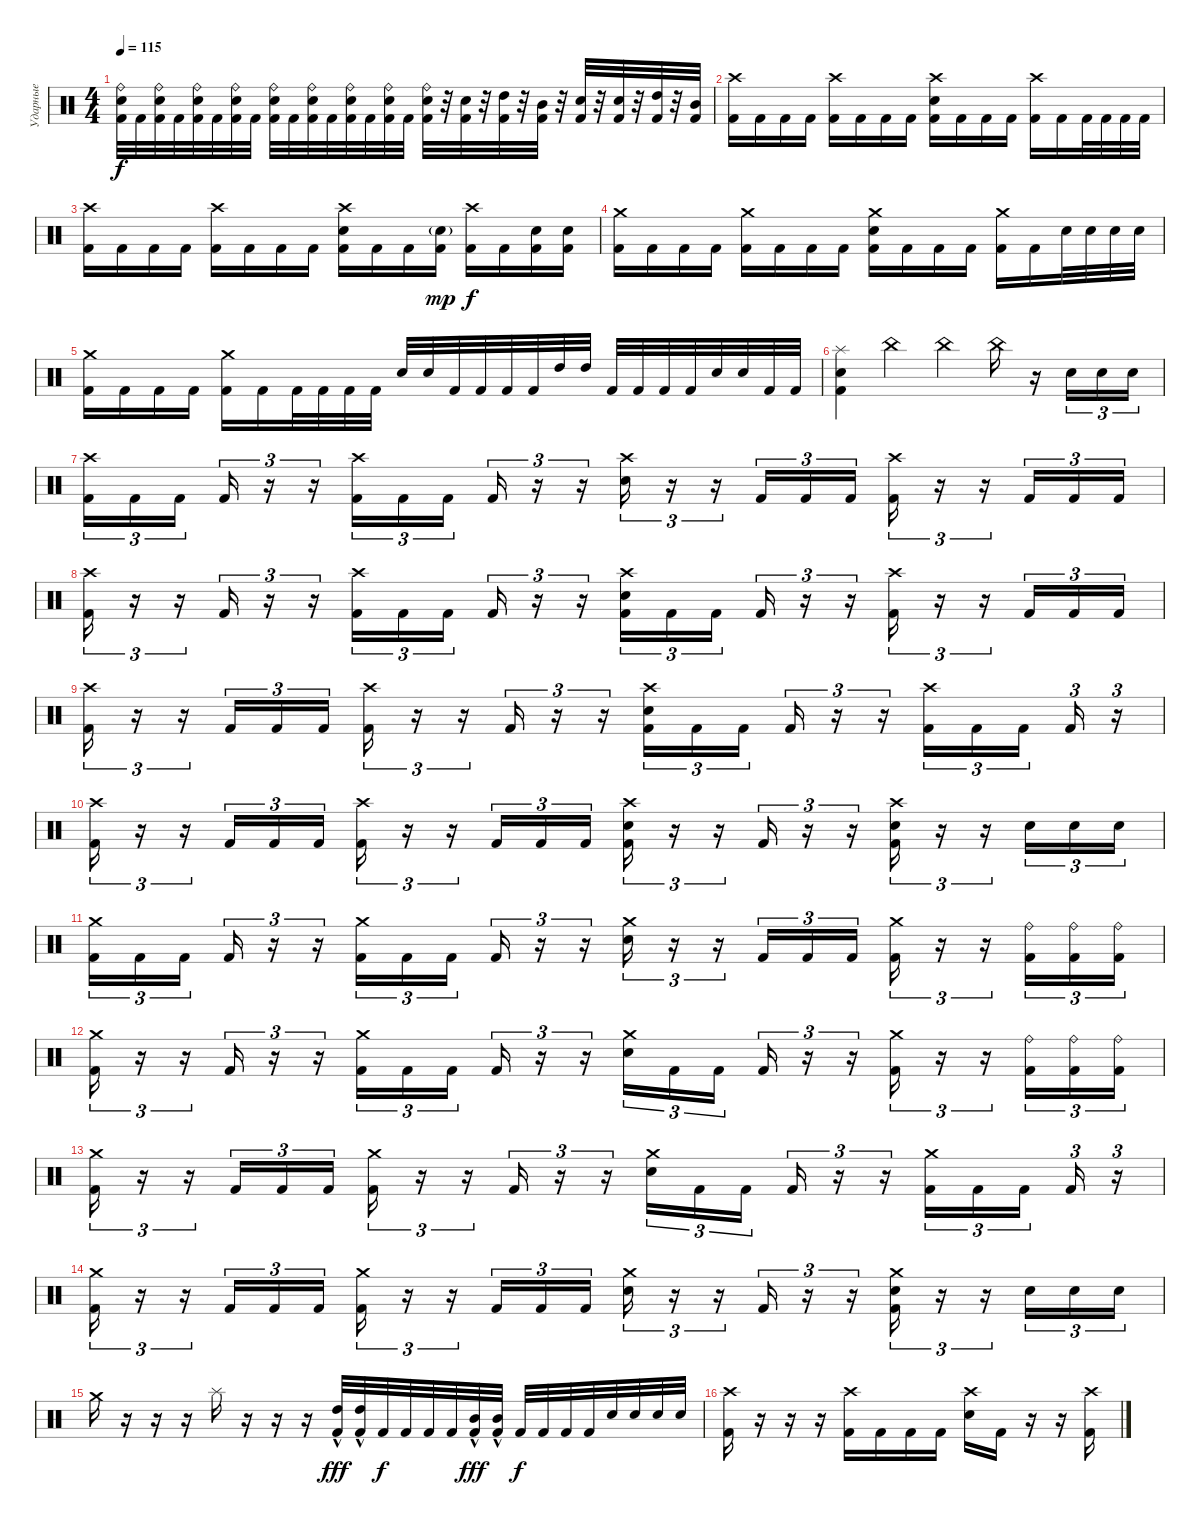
\track ("Ударные" "Ударные") {instrument percussion}
\staff {score}
\articulation defaults
\ts (4 4)
\tempo 115
\clef neutral
\ks c
("Ride (bell)" "Electric Snare (hit)" "Kick (hit) 2").32{dy f} "Kick (hit) 2".32 ("Ride (bell)" "Electric Snare (hit)" "Kick (hit) 2").32 "Kick (hit) 2".32 ("Ride (bell)" "Electric Snare (hit)" "Kick (hit) 2").32 "Kick (hit) 2".32 ("Ride (bell)" "Electric Snare (hit)" "Kick (hit) 2").32 "Kick (hit) 2".32 ("Ride (bell)" "Electric Snare (hit)" "Kick (hit) 2").32 "Kick (hit) 2".32 ("Ride (bell)" "Electric Snare (hit)" "Kick (hit) 2").32 "Kick (hit) 2".32 ("Ride (bell)" "Electric Snare (hit)" "Kick (hit) 2").32 "Kick (hit) 2".32 ("Ride (bell)" "Electric Snare (hit)" "Kick (hit) 2").32 "Kick (hit) 2".32 ("Ride (bell)" "Electric Snare (hit)" "Kick (hit) 2").32 r.32 ("Electric Snare (hit)" "Kick (hit) 2").32 r.32 ("High Tom (hit)" "Kick (hit) 2").32 r.32 ("Mid Tom (hit)" "Kick (hit) 2").32 r.32 ("Electric Snare (hit)" "Kick (hit) 2").32 r.32 ("Electric Snare (hit)" "Kick (hit) 2").32 r.32 ("High Tom (hit)" "Kick (hit) 2").32 r.32 ("Mid Tom (hit)" "Kick (hit) 2").32 |
("Crash high (hit)" "Kick (hit) 2").16 "Kick (hit) 2".16 "Kick (hit) 2".16 "Kick (hit) 2".16 ("Crash high (hit)" "Kick (hit) 2").16 "Kick (hit) 2".16 "Kick (hit) 2".16 "Kick (hit) 2".16 ("Crash high (hit)" "Electric Snare (hit)" "Kick (hit) 2").16 "Kick (hit) 2".16 "Kick (hit) 2".16 "Kick (hit) 2".16 ("Crash high (hit)" "Kick (hit) 2").16 "Kick (hit) 2".16 "Kick (hit) 2".32 "Kick (hit) 2".32 "Kick (hit) 2".32 "Kick (hit) 2".32 |
("Crash high (hit)" "Kick (hit) 2").16 "Kick (hit) 2".16 "Kick (hit) 2".16 "Kick (hit) 2".16 ("Crash high (hit)" "Kick (hit) 2").16 "Kick (hit) 2".16 "Kick (hit) 2".16 "Kick (hit) 2".16 ("Crash high (hit)" "Electric Snare (hit)" "Kick (hit) 2").16 "Kick (hit) 2".16 "Kick (hit) 2".16 ("Electric Snare (hit)"{g} "Kick (hit) 2").16{dy mp} ("Crash high (hit)" "Kick (hit) 2").16{dy f} "Kick (hit) 2".16 ("Electric Snare (hit)" "Kick (hit) 2").16 ("Electric Snare (hit)" "Kick (hit) 2").16 |
("Crash medium (hit)" "Kick (hit) 2").16 "Kick (hit) 2".16 "Kick (hit) 2".16 "Kick (hit) 2".16 ("Crash medium (hit)" "Kick (hit) 2").16 "Kick (hit) 2".16 "Kick (hit) 2".16 "Kick (hit) 2".16 ("Crash medium (hit)" "Electric Snare (hit)" "Kick (hit) 2").16 "Kick (hit) 2".16 "Kick (hit) 2".16 "Kick (hit) 2".16 ("Crash medium (hit)" "Kick (hit) 2").16 "Kick (hit) 2".16 "Electric Snare (hit)".32 "Electric Snare (hit)".32 "Electric Snare (hit)".32 "Electric Snare (hit)".32 |
("Crash medium (hit)" "Kick (hit) 2").16 "Kick (hit) 2".16 "Kick (hit) 2".16 "Kick (hit) 2".16 ("Crash medium (hit)" "Kick (hit) 2").16 "Kick (hit) 2".16 "Kick (hit) 2".32 "Kick (hit) 2".32 "Kick (hit) 2".32 "Kick (hit) 2".32 "Electric Snare (hit)".32 "Electric Snare (hit)".32 "Kick (hit) 2".32 "Kick (hit) 2".32 "Kick (hit) 2".32 "Kick (hit) 2".32 "High Tom (hit)".32 "High Tom (hit)".32 "Kick (hit) 2".32 "Kick (hit) 2".32 "Kick (hit) 2".32 "Kick (hit) 2".32 "Electric Snare (hit)".32 "Electric Snare (hit)".32 "Kick (hit) 2".32 "Kick (hit) 2".32 |
("Splash (hit)" "Kick (hit) 2" "Electric Snare (hit)").4 "China (hit)".4 "China (hit)".4 "China (hit)".16 r.16 "Electric Snare (hit)".16{tu (3 2)} "Electric Snare (hit)".16{tu (3 2)} "Electric Snare (hit)".16{tu (3 2)} |
("Crash high (hit)" "Kick (hit) 2").16{tu (3 2)} "Kick (hit) 2".16{tu (3 2)} "Kick (hit) 2".16{tu (3 2) beam splitsecondary} "Kick (hit) 2".16{tu (3 2)} r.16{tu (3 2)} r.16{tu (3 2)} ("Crash high (hit)" "Kick (hit) 2").16{tu (3 2)} "Kick (hit) 2".16{tu (3 2)} "Kick (hit) 2".16{tu (3 2) beam splitsecondary} "Kick (hit) 2".16{tu (3 2)} r.16{tu (3 2)} r.16{tu (3 2)} ("Crash high (hit)" "Electric Snare (hit)").16{tu (3 2)} r.16{tu (3 2)} r.16{tu (3 2)} "Kick (hit) 2".16{tu (3 2)} "Kick (hit) 2".16{tu (3 2)} "Kick (hit) 2".16{tu (3 2)} ("Crash high (hit)" "Kick (hit) 2").16{tu (3 2)} r.16{tu (3 2)} r.16{tu (3 2)} "Kick (hit) 2".16{tu (3 2)} "Kick (hit) 2".16{tu (3 2)} "Kick (hit) 2".16{tu (3 2)} |
("Crash high (hit)" "Kick (hit) 2").16{tu (3 2)} r.16{tu (3 2)} r.16{tu (3 2)} "Kick (hit) 2".16{tu (3 2)} r.16{tu (3 2)} r.16{tu (3 2)} ("Crash high (hit)" "Kick (hit) 2").16{tu (3 2)} "Kick (hit) 2".16{tu (3 2)} "Kick (hit) 2".16{tu (3 2) beam splitsecondary} "Kick (hit) 2".16{tu (3 2)} r.16{tu (3 2)} r.16{tu (3 2)} ("Crash high (hit)" "Electric Snare (hit)" "Kick (hit) 2").16{tu (3 2)} "Kick (hit) 2".16{tu (3 2)} "Kick (hit) 2".16{tu (3 2) beam splitsecondary} "Kick (hit) 2".16{tu (3 2)} r.16{tu (3 2)} r.16{tu (3 2)} ("Crash high (hit)" "Kick (hit) 2").16{tu (3 2)} r.16{tu (3 2)} r.16{tu (3 2)} "Kick (hit) 2".16{tu (3 2)} "Kick (hit) 2".16{tu (3 2)} "Kick (hit) 2".16{tu (3 2)} |
("Crash high (hit)" "Kick (hit) 2").16{tu (3 2)} r.16{tu (3 2)} r.16{tu (3 2)} "Kick (hit) 2".16{tu (3 2)} "Kick (hit) 2".16{tu (3 2)} "Kick (hit) 2".16{tu (3 2)} ("Crash high (hit)" "Kick (hit) 2").16{tu (3 2)} r.16{tu (3 2)} r.16{tu (3 2)} "Kick (hit) 2".16{tu (3 2)} r.16{tu (3 2)} r.16{tu (3 2)} ("Crash high (hit)" "Electric Snare (hit)" "Kick (hit) 2").16{tu (3 2)} "Kick (hit) 2".16{tu (3 2)} "Kick (hit) 2".16{tu (3 2) beam splitsecondary} "Kick (hit) 2".16{tu (3 2)} r.16{tu (3 2)} r.16{tu (3 2)} ("Crash high (hit)" "Kick (hit) 2").16{tu (3 2)} "Kick (hit) 2".16{tu (3 2)} "Kick (hit) 2".16{tu (3 2) beam splitsecondary} "Kick (hit) 2".16{tu (3 2)} r.16{tu (3 2)} |
("Crash high (hit)" "Kick (hit) 2").16{tu (3 2)} r.16{tu (3 2)} r.16{tu (3 2)} "Kick (hit) 2".16{tu (3 2)} "Kick (hit) 2".16{tu (3 2)} "Kick (hit) 2".16{tu (3 2)} ("Crash high (hit)" "Kick (hit) 2").16{tu (3 2)} r.16{tu (3 2)} r.16{tu (3 2)} "Kick (hit) 2".16{tu (3 2)} "Kick (hit) 2".16{tu (3 2)} "Kick (hit) 2".16{tu (3 2)} ("Crash high (hit)" "Electric Snare (hit)" "Kick (hit) 2").16{tu (3 2)} r.16{tu (3 2)} r.16{tu (3 2)} "Kick (hit) 2".16{tu (3 2)} r.16{tu (3 2)} r.16{tu (3 2)} ("Crash high (hit)" "Electric Snare (hit)" "Kick (hit) 2").16{tu (3 2)} r.16{tu (3 2)} r.16{tu (3 2)} "Electric Snare (hit)".16{tu (3 2)} "Electric Snare (hit)".16{tu (3 2)} "Electric Snare (hit)".16{tu (3 2)} |
("Crash medium (hit)" "Kick (hit) 2").16{tu (3 2)} "Kick (hit) 2".16{tu (3 2)} "Kick (hit) 2".16{tu (3 2) beam splitsecondary} "Kick (hit) 2".16{tu (3 2)} r.16{tu (3 2)} r.16{tu (3 2)} ("Crash medium (hit)" "Kick (hit) 2").16{tu (3 2)} "Kick (hit) 2".16{tu (3 2)} "Kick (hit) 2".16{tu (3 2) beam splitsecondary} "Kick (hit) 2".16{tu (3 2)} r.16{tu (3 2)} r.16{tu (3 2)} ("Crash medium (hit)" "Electric Snare (hit)").16{tu (3 2)} r.16{tu (3 2)} r.16{tu (3 2)} "Kick (hit) 2".16{tu (3 2)} "Kick (hit) 2".16{tu (3 2)} "Kick (hit) 2".16{tu (3 2)} ("Crash medium (hit)" "Kick (hit) 2").16{tu (3 2)} r.16{tu (3 2)} r.16{tu (3 2)} ("Ride (bell)" "Kick (hit) 2").16{tu (3 2)} ("Ride (bell)" "Kick (hit) 2").16{tu (3 2)} ("Ride (bell)" "Kick (hit) 2").16{tu (3 2)} |
("Crash medium (hit)" "Kick (hit) 2").16{tu (3 2)} r.16{tu (3 2)} r.16{tu (3 2)} "Kick (hit) 2".16{tu (3 2)} r.16{tu (3 2)} r.16{tu (3 2)} ("Crash medium (hit)" "Kick (hit) 2").16{tu (3 2)} "Kick (hit) 2".16{tu (3 2)} "Kick (hit) 2".16{tu (3 2) beam splitsecondary} "Kick (hit) 2".16{tu (3 2)} r.16{tu (3 2)} r.16{tu (3 2)} ("Crash medium (hit)" "Electric Snare (hit)").16{tu (3 2)} "Kick (hit) 2".16{tu (3 2)} "Kick (hit) 2".16{tu (3 2) beam splitsecondary} "Kick (hit) 2".16{tu (3 2)} r.16{tu (3 2)} r.16{tu (3 2)} ("Crash medium (hit)" "Kick (hit) 2").16{tu (3 2)} r.16{tu (3 2)} r.16{tu (3 2)} ("Ride (bell)" "Kick (hit) 2").16{tu (3 2)} ("Ride (bell)" "Kick (hit) 2").16{tu (3 2)} ("Ride (bell)" "Kick (hit) 2").16{tu (3 2)} |
("Crash medium (hit)" "Kick (hit) 2").16{tu (3 2)} r.16{tu (3 2)} r.16{tu (3 2)} "Kick (hit) 2".16{tu (3 2)} "Kick (hit) 2".16{tu (3 2)} "Kick (hit) 2".16{tu (3 2)} ("Crash medium (hit)" "Kick (hit) 2").16{tu (3 2)} r.16{tu (3 2)} r.16{tu (3 2)} "Kick (hit) 2".16{tu (3 2)} r.16{tu (3 2)} r.16{tu (3 2)} ("Crash medium (hit)" "Electric Snare (hit)").16{tu (3 2)} "Kick (hit) 2".16{tu (3 2)} "Kick (hit) 2".16{tu (3 2) beam splitsecondary} "Kick (hit) 2".16{tu (3 2)} r.16{tu (3 2)} r.16{tu (3 2)} ("Crash medium (hit)" "Kick (hit) 2").16{tu (3 2)} "Kick (hit) 2".16{tu (3 2)} "Kick (hit) 2".16{tu (3 2) beam splitsecondary} "Kick (hit) 2".16{tu (3 2)} r.16{tu (3 2)} |
("Crash medium (hit)" "Kick (hit) 2").16{tu (3 2)} r.16{tu (3 2)} r.16{tu (3 2)} "Kick (hit) 2".16{tu (3 2)} "Kick (hit) 2".16{tu (3 2)} "Kick (hit) 2".16{tu (3 2)} ("Crash medium (hit)" "Kick (hit) 2").16{tu (3 2)} r.16{tu (3 2)} r.16{tu (3 2)} "Kick (hit) 2".16{tu (3 2)} "Kick (hit) 2".16{tu (3 2)} "Kick (hit) 2".16{tu (3 2)} ("Crash medium (hit)" "Electric Snare (hit)").16{tu (3 2)} r.16{tu (3 2)} r.16{tu (3 2)} "Kick (hit) 2".16{tu (3 2)} r.16{tu (3 2)} r.16{tu (3 2)} ("Crash medium (hit)" "Electric Snare (hit)" "Kick (hit) 2").16{tu (3 2)} r.16{tu (3 2)} r.16{tu (3 2)} "Electric Snare (hit)".16{tu (3 2)} "Electric Snare (hit)".16{tu (3 2)} "Electric Snare (hit)".16{tu (3 2)} |
"Crash medium (hit)".16 r.16 r.16 r.16 "Splash (hit)".16 r.16 r.16 r.16 ("High Tom (hit)"{hac} "Kick (hit) 2").32{dy fff} ("High Tom (hit)"{hac} "Kick (hit) 2").32 "Kick (hit) 2".32{dy f} "Kick (hit) 2".32 "Kick (hit) 2".32 "Kick (hit) 2".32 ("Mid Tom (hit)"{hac} "Kick (hit) 2").32{dy fff} ("Mid Tom (hit)"{hac} "Kick (hit) 2").32 "Kick (hit) 2".32{dy f} "Kick (hit) 2".32 "Kick (hit) 2".32 "Kick (hit) 2".32 "Electric Snare (hit)".32 "Electric Snare (hit)".32 "Electric Snare (hit)".32 "Electric Snare (hit)".32 |
("Crash high (hit)" "Kick (hit) 2").16 r.16 r.16 r.16 ("Crash high (hit)" "Kick (hit) 2").16 "Kick (hit) 2".16 "Kick (hit) 2".16 "Kick (hit) 2".16 ("Crash high (hit)" "Electric Snare (hit)").16 "Kick (hit) 2".16 r.16 r.16 ("Crash high (hit)" "Kick (hit) 2").16
